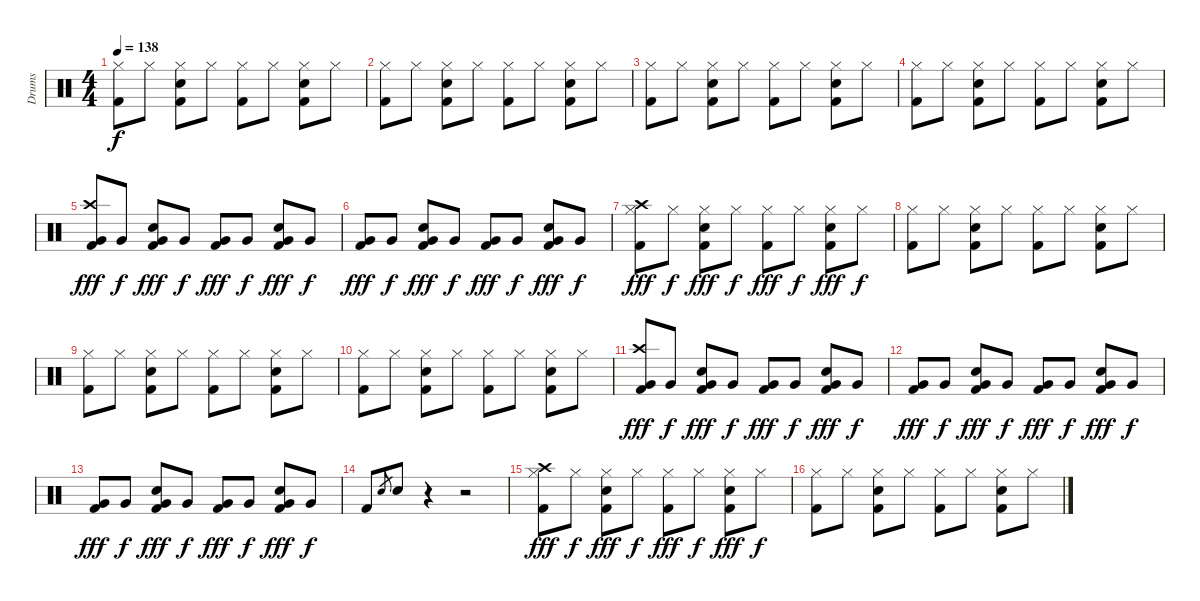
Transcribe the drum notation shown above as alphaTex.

\track ("Drums" "Drums") {instrument percussion}
\staff {score}
\articulation defaults
\ts (4 4)
\tempo 138
\clef neutral
\ks c
("Hi-Hat (closed)" "Kick (hit) 2").8{dy f} "Hi-Hat (closed)".8 ("Hi-Hat (closed)" "Electric Snare (hit)" "Kick (hit) 2").8 "Hi-Hat (closed)".8 ("Hi-Hat (closed)" "Kick (hit) 2").8 "Hi-Hat (closed)".8 ("Hi-Hat (closed)" "Electric Snare (hit)" "Kick (hit) 2").8 "Hi-Hat (closed)".8 |
("Hi-Hat (closed)" "Kick (hit) 2").8 "Hi-Hat (closed)".8 ("Hi-Hat (closed)" "Electric Snare (hit)" "Kick (hit) 2").8 "Hi-Hat (closed)".8 ("Hi-Hat (closed)" "Kick (hit) 2").8 "Hi-Hat (closed)".8 ("Hi-Hat (closed)" "Electric Snare (hit)" "Kick (hit) 2").8 "Hi-Hat (closed)".8 |
("Hi-Hat (closed)" "Kick (hit) 2").8 "Hi-Hat (closed)".8 ("Hi-Hat (closed)" "Electric Snare (hit)" "Kick (hit) 2").8 "Hi-Hat (closed)".8 ("Hi-Hat (closed)" "Kick (hit) 2").8 "Hi-Hat (closed)".8 ("Hi-Hat (closed)" "Electric Snare (hit)" "Kick (hit) 2").8 "Hi-Hat (closed)".8 |
("Hi-Hat (closed)" "Kick (hit) 2").8 "Hi-Hat (closed)".8 ("Hi-Hat (closed)" "Electric Snare (hit)" "Kick (hit) 2").8 "Hi-Hat (closed)".8 ("Hi-Hat (closed)" "Kick (hit) 2").8 "Hi-Hat (closed)".8 ("Hi-Hat (closed)" "Electric Snare (hit)" "Kick (hit) 2").8 "Hi-Hat (closed)".8 |
("Crash high (hit)" "Very Low Tom (hit)" "Kick (hit) 2").8{dy fff} "Very Low Tom (hit)".8{dy f} ("Electric Snare (hit)" "Very Low Tom (hit)" "Kick (hit) 2").8{dy fff} "Very Low Tom (hit)".8{dy f} ("Very Low Tom (hit)" "Kick (hit) 2").8{dy fff} "Very Low Tom (hit)".8{dy f} ("Electric Snare (hit)" "Very Low Tom (hit)" "Kick (hit) 2").8{dy fff} "Very Low Tom (hit)".8{dy f} |
("Very Low Tom (hit)" "Kick (hit) 2").8{dy fff} "Very Low Tom (hit)".8{dy f} ("Electric Snare (hit)" "Very Low Tom (hit)" "Kick (hit) 2").8{dy fff} "Very Low Tom (hit)".8{dy f} ("Very Low Tom (hit)" "Kick (hit) 2").8{dy fff} "Very Low Tom (hit)".8{dy f} ("Electric Snare (hit)" "Very Low Tom (hit)" "Kick (hit) 2").8{dy fff} "Very Low Tom (hit)".8{dy f} |
("Crash high (hit)" "Hi-Hat (closed)" "Kick (hit) 2").8{dy fff} "Hi-Hat (closed)".8{dy f} ("Hi-Hat (closed)" "Electric Snare (hit)" "Kick (hit) 2").8{dy fff} "Hi-Hat (closed)".8{dy f} ("Hi-Hat (closed)" "Kick (hit) 2").8{dy fff} "Hi-Hat (closed)".8{dy f} ("Hi-Hat (closed)" "Electric Snare (hit)" "Kick (hit) 2").8{dy fff} "Hi-Hat (closed)".8{dy f} |
("Hi-Hat (closed)" "Kick (hit) 2").8 "Hi-Hat (closed)".8 ("Hi-Hat (closed)" "Electric Snare (hit)" "Kick (hit) 2").8 "Hi-Hat (closed)".8 ("Hi-Hat (closed)" "Kick (hit) 2").8 "Hi-Hat (closed)".8 ("Hi-Hat (closed)" "Electric Snare (hit)" "Kick (hit) 2").8 "Hi-Hat (closed)".8 |
("Hi-Hat (closed)" "Kick (hit) 2").8 "Hi-Hat (closed)".8 ("Hi-Hat (closed)" "Electric Snare (hit)" "Kick (hit) 2").8 "Hi-Hat (closed)".8 ("Hi-Hat (closed)" "Kick (hit) 2").8 "Hi-Hat (closed)".8 ("Hi-Hat (closed)" "Electric Snare (hit)" "Kick (hit) 2").8 "Hi-Hat (closed)".8 |
("Hi-Hat (closed)" "Kick (hit) 2").8 "Hi-Hat (closed)".8 ("Hi-Hat (closed)" "Electric Snare (hit)" "Kick (hit) 2").8 "Hi-Hat (closed)".8 ("Hi-Hat (closed)" "Kick (hit) 2").8 "Hi-Hat (closed)".8 ("Hi-Hat (closed)" "Electric Snare (hit)" "Kick (hit) 2").8 "Hi-Hat (closed)".8 |
("Crash high (hit)" "Very Low Tom (hit)" "Kick (hit) 2").8{dy fff} "Very Low Tom (hit)".8{dy f} ("Electric Snare (hit)" "Very Low Tom (hit)" "Kick (hit) 2").8{dy fff} "Very Low Tom (hit)".8{dy f} ("Very Low Tom (hit)" "Kick (hit) 2").8{dy fff} "Very Low Tom (hit)".8{dy f} ("Electric Snare (hit)" "Very Low Tom (hit)" "Kick (hit) 2").8{dy fff} "Very Low Tom (hit)".8{dy f} |
("Very Low Tom (hit)" "Kick (hit) 2").8{dy fff} "Very Low Tom (hit)".8{dy f} ("Electric Snare (hit)" "Very Low Tom (hit)" "Kick (hit) 2").8{dy fff} "Very Low Tom (hit)".8{dy f} ("Very Low Tom (hit)" "Kick (hit) 2").8{dy fff} "Very Low Tom (hit)".8{dy f} ("Electric Snare (hit)" "Very Low Tom (hit)" "Kick (hit) 2").8{dy fff} "Very Low Tom (hit)".8{dy f} |
("Very Low Tom (hit)" "Kick (hit) 2").8{dy fff} "Very Low Tom (hit)".8{dy f} ("Electric Snare (hit)" "Very Low Tom (hit)" "Kick (hit) 2").8{dy fff} "Very Low Tom (hit)".8{dy f} ("Very Low Tom (hit)" "Kick (hit) 2").8{dy fff} "Very Low Tom (hit)".8{dy f} ("Electric Snare (hit)" "Very Low Tom (hit)" "Kick (hit) 2").8{dy fff} "Very Low Tom (hit)".8{dy f} |
"Kick (hit) 2".8 "Electric Snare (hit)".8{gr} "Electric Snare (hit)".8 r.4 r.2 |
("Crash high (hit)" "Hi-Hat (closed)" "Kick (hit) 2").8{dy fff} "Hi-Hat (closed)".8{dy f} ("Hi-Hat (closed)" "Electric Snare (hit)" "Kick (hit) 2").8{dy fff} "Hi-Hat (closed)".8{dy f} ("Hi-Hat (closed)" "Kick (hit) 2").8{dy fff} "Hi-Hat (closed)".8{dy f} ("Hi-Hat (closed)" "Electric Snare (hit)" "Kick (hit) 2").8{dy fff} "Hi-Hat (closed)".8{dy f} |
("Hi-Hat (closed)" "Kick (hit) 2").8 "Hi-Hat (closed)".8 ("Hi-Hat (closed)" "Electric Snare (hit)" "Kick (hit) 2").8 "Hi-Hat (closed)".8 ("Hi-Hat (closed)" "Kick (hit) 2").8 "Hi-Hat (closed)".8 ("Hi-Hat (closed)" "Electric Snare (hit)" "Kick (hit) 2").8 "Hi-Hat (closed)".8
